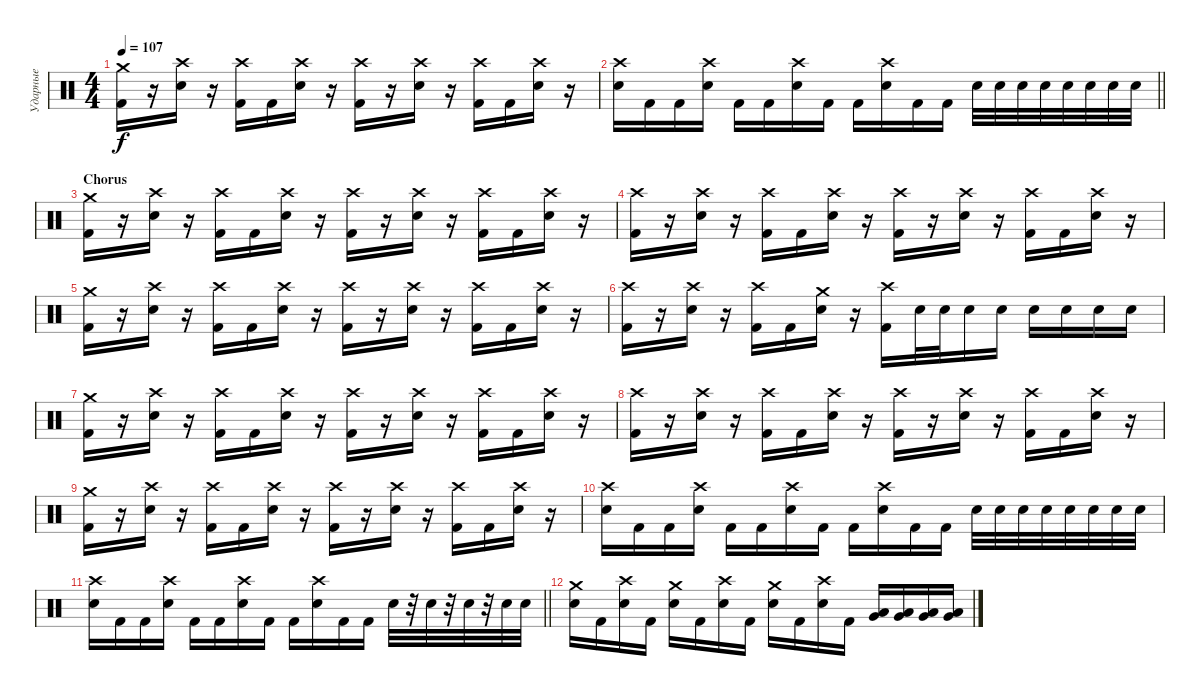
\track ("Ударные" "Ударные") {instrument percussion}
\staff {score}
\articulation defaults
\ts (4 4)
\tempo 107
\clef neutral
\ks c
("Crash medium (hit)" "Kick (hit) 2").16{dy f} r.16 ("Crash high (hit)" "Electric Snare (hit)").16 r.16 ("Crash high (hit)" "Kick (hit) 2").16 "Kick (hit) 2".16 ("Crash high (hit)" "Electric Snare (hit)").16 r.16 ("Crash high (hit)" "Kick (hit) 2").16 r.16 ("Crash high (hit)" "Electric Snare (hit)").16 r.16 ("Crash high (hit)" "Kick (hit) 2").16 "Kick (hit) 2".16 ("Crash high (hit)" "Electric Snare (hit)").16 r.16 |
\barLineRight lightlight
("Crash high (hit)" "Electric Snare (hit)").16 "Kick (hit) 2".16 "Kick (hit) 2".16 ("Crash high (hit)" "Electric Snare (hit)").16 "Kick (hit) 2".16 "Kick (hit) 2".16 ("Crash high (hit)" "Electric Snare (hit)").16 "Kick (hit) 2".16 "Kick (hit) 2".16 ("Crash high (hit)" "Electric Snare (hit)").16 "Kick (hit) 2".16 "Kick (hit) 2".16 "Electric Snare (hit)".32 "Electric Snare (hit)".32 "Electric Snare (hit)".32 "Electric Snare (hit)".32 "Electric Snare (hit)".32 "Electric Snare (hit)".32 "Electric Snare (hit)".32 "Electric Snare (hit)".32 |
\section ("" "Chorus")
("Crash medium (hit)" "Kick (hit) 2").16 r.16 ("Crash high (hit)" "Electric Snare (hit)").16 r.16 ("Crash high (hit)" "Kick (hit) 2").16 "Kick (hit) 2".16 ("Crash high (hit)" "Electric Snare (hit)").16 r.16 ("Crash high (hit)" "Kick (hit) 2").16 r.16 ("Crash high (hit)" "Electric Snare (hit)").16 r.16 ("Crash high (hit)" "Kick (hit) 2").16 "Kick (hit) 2".16 ("Crash high (hit)" "Electric Snare (hit)").16 r.16 |
("Crash high (hit)" "Kick (hit) 2").16 r.16 ("Crash high (hit)" "Electric Snare (hit)").16 r.16 ("Crash high (hit)" "Kick (hit) 2").16 "Kick (hit) 2".16 ("Crash high (hit)" "Electric Snare (hit)").16 r.16 ("Crash high (hit)" "Kick (hit) 2").16 r.16 ("Crash high (hit)" "Electric Snare (hit)").16 r.16 ("Crash high (hit)" "Kick (hit) 2").16 "Kick (hit) 2".16 ("Crash high (hit)" "Electric Snare (hit)").16 r.16 |
("Crash medium (hit)" "Kick (hit) 2").16 r.16 ("Crash high (hit)" "Electric Snare (hit)").16 r.16 ("Crash high (hit)" "Kick (hit) 2").16 "Kick (hit) 2".16 ("Crash high (hit)" "Electric Snare (hit)").16 r.16 ("Crash high (hit)" "Kick (hit) 2").16 r.16 ("Crash high (hit)" "Electric Snare (hit)").16 r.16 ("Crash high (hit)" "Kick (hit) 2").16 "Kick (hit) 2".16 ("Crash high (hit)" "Electric Snare (hit)").16 r.16 |
("Crash high (hit)" "Kick (hit) 2").16 r.16 ("Crash high (hit)" "Electric Snare (hit)").16 r.16 ("Crash high (hit)" "Kick (hit) 2").16 "Kick (hit) 2".16 ("Crash medium (hit)" "Electric Snare (hit)").16 r.16 ("Crash high (hit)" "Kick (hit) 2").16 "Electric Snare (hit)".32 "Electric Snare (hit)".32 "Electric Snare (hit)".16 "Electric Snare (hit)".16 "Electric Snare (hit)".16 "Electric Snare (hit)".16 "Electric Snare (hit)".16 "Electric Snare (hit)".16 |
("Crash medium (hit)" "Kick (hit) 2").16 r.16 ("Crash high (hit)" "Electric Snare (hit)").16 r.16 ("Crash high (hit)" "Kick (hit) 2").16 "Kick (hit) 2".16 ("Crash high (hit)" "Electric Snare (hit)").16 r.16 ("Crash high (hit)" "Kick (hit) 2").16 r.16 ("Crash high (hit)" "Electric Snare (hit)").16 r.16 ("Crash high (hit)" "Kick (hit) 2").16 "Kick (hit) 2".16 ("Crash high (hit)" "Electric Snare (hit)").16 r.16 |
("Crash high (hit)" "Kick (hit) 2").16 r.16 ("Crash high (hit)" "Electric Snare (hit)").16 r.16 ("Crash high (hit)" "Kick (hit) 2").16 "Kick (hit) 2".16 ("Crash high (hit)" "Electric Snare (hit)").16 r.16 ("Crash high (hit)" "Kick (hit) 2").16 r.16 ("Crash high (hit)" "Electric Snare (hit)").16 r.16 ("Crash high (hit)" "Kick (hit) 2").16 "Kick (hit) 2".16 ("Crash high (hit)" "Electric Snare (hit)").16 r.16 |
("Crash medium (hit)" "Kick (hit) 2").16 r.16 ("Crash high (hit)" "Electric Snare (hit)").16 r.16 ("Crash high (hit)" "Kick (hit) 2").16 "Kick (hit) 2".16 ("Crash high (hit)" "Electric Snare (hit)").16 r.16 ("Crash high (hit)" "Kick (hit) 2").16 r.16 ("Crash high (hit)" "Electric Snare (hit)").16 r.16 ("Crash high (hit)" "Kick (hit) 2").16 "Kick (hit) 2".16 ("Crash high (hit)" "Electric Snare (hit)").16 r.16 |
("Crash high (hit)" "Electric Snare (hit)").16 "Kick (hit) 2".16 "Kick (hit) 2".16 ("Crash high (hit)" "Electric Snare (hit)").16 "Kick (hit) 2".16 "Kick (hit) 2".16 ("Crash high (hit)" "Electric Snare (hit)").16 "Kick (hit) 2".16 "Kick (hit) 2".16 ("Crash high (hit)" "Electric Snare (hit)").16 "Kick (hit) 2".16 "Kick (hit) 2".16 "Electric Snare (hit)".32 "Electric Snare (hit)".32 "Electric Snare (hit)".32 "Electric Snare (hit)".32 "Electric Snare (hit)".32 "Electric Snare (hit)".32 "Electric Snare (hit)".32 "Electric Snare (hit)".32 |
\barLineRight lightlight
("Crash high (hit)" "Electric Snare (hit)").16 "Kick (hit) 2".16 "Kick (hit) 2".16 ("Crash high (hit)" "Electric Snare (hit)").16 "Kick (hit) 2".16 "Kick (hit) 2".16 ("Crash high (hit)" "Electric Snare (hit)").16 "Kick (hit) 2".16 "Kick (hit) 2".16 ("Crash high (hit)" "Electric Snare (hit)").16 "Kick (hit) 2".16 "Kick (hit) 2".16 "Electric Snare (hit)".32 r.32 "Electric Snare (hit)".32 r.32 "Electric Snare (hit)".32 r.32 "Electric Snare (hit)".32 "Electric Snare (hit)".32 |
("Crash medium (hit)" "Electric Snare (hit)").16 "Kick (hit) 2".16 ("Crash high (hit)" "Electric Snare (hit)").16 "Kick (hit) 2".16 ("Crash medium (hit)" "Electric Snare (hit)").16 "Kick (hit) 2".16 ("Crash high (hit)" "Electric Snare (hit)").16 "Kick (hit) 2".16 ("Crash medium (hit)" "Electric Snare (hit)").16 "Kick (hit) 2".16 ("Crash high (hit)" "Electric Snare (hit)").16 "Kick (hit) 2".16 ("Low Tom (hit)" "Very Low Tom (hit)").16 ("Low Tom (hit)" "Very Low Tom (hit)").16 ("Low Tom (hit)" "Very Low Tom (hit)").16 ("Low Tom (hit)" "Very Low Tom (hit)").16
